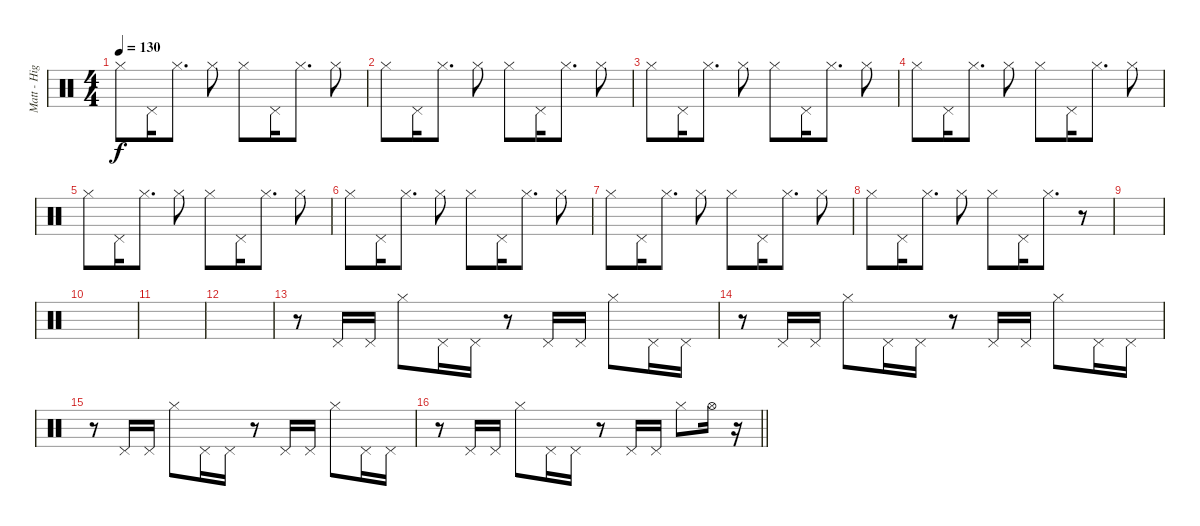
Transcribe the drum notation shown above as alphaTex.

\track ("Matt - High Hat" "Matt - Hig") {instrument percussion}
\staff {score}
\articulation defaults
\ts (4 4)
\tempo 130
\clef neutral
\ks c "Hi-Hat (closed)".8{dy f} "Pedal Hi-Hat (hit)".16 "Hi-Hat (closed)".8{d} "Hi-Hat (closed)".8 "Hi-Hat (closed)".8 "Pedal Hi-Hat (hit)".16 "Hi-Hat (closed)".8{d} "Hi-Hat (closed)".8
|
"Hi-Hat (closed)".8 "Pedal Hi-Hat (hit)".16 "Hi-Hat (closed)".8{d} "Hi-Hat (closed)".8 "Hi-Hat (closed)".8 "Pedal Hi-Hat (hit)".16 "Hi-Hat (closed)".8{d} "Hi-Hat (closed)".8 |
"Hi-Hat (closed)".8 "Pedal Hi-Hat (hit)".16 "Hi-Hat (closed)".8{d} "Hi-Hat (closed)".8 "Hi-Hat (closed)".8 "Pedal Hi-Hat (hit)".16 "Hi-Hat (closed)".8{d} "Hi-Hat (closed)".8 |
"Hi-Hat (closed)".8 "Pedal Hi-Hat (hit)".16 "Hi-Hat (closed)".8{d} "Hi-Hat (closed)".8 "Hi-Hat (closed)".8 "Pedal Hi-Hat (hit)".16 "Hi-Hat (closed)".8{d} "Hi-Hat (closed)".8 |
"Hi-Hat (closed)".8 "Pedal Hi-Hat (hit)".16 "Hi-Hat (closed)".8{d} "Hi-Hat (closed)".8 "Hi-Hat (closed)".8 "Pedal Hi-Hat (hit)".16 "Hi-Hat (closed)".8{d} "Hi-Hat (closed)".8 |
"Hi-Hat (closed)".8 "Pedal Hi-Hat (hit)".16 "Hi-Hat (closed)".8{d} "Hi-Hat (closed)".8 "Hi-Hat (closed)".8 "Pedal Hi-Hat (hit)".16 "Hi-Hat (closed)".8{d} "Hi-Hat (closed)".8 |
"Hi-Hat (closed)".8 "Pedal Hi-Hat (hit)".16 "Hi-Hat (closed)".8{d} "Hi-Hat (closed)".8 "Hi-Hat (closed)".8 "Pedal Hi-Hat (hit)".16 "Hi-Hat (closed)".8{d} "Hi-Hat (closed)".8 |
"Hi-Hat (closed)".8 "Pedal Hi-Hat (hit)".16 "Hi-Hat (closed)".8{d} "Hi-Hat (closed)".8 "Hi-Hat (closed)".8 "Pedal Hi-Hat (hit)".16 "Hi-Hat (closed)".8{d} r.8 |
|
|
|
|
r.8 "Pedal Hi-Hat (hit)".16 "Pedal Hi-Hat (hit)".16 "Hi-Hat (closed)".8 "Pedal Hi-Hat (hit)".16 "Pedal Hi-Hat (hit)".16 r.8 "Pedal Hi-Hat (hit)".16 "Pedal Hi-Hat (hit)".16 "Hi-Hat (closed)".8 "Pedal Hi-Hat (hit)".16 "Pedal Hi-Hat (hit)".16 |
r.8 "Pedal Hi-Hat (hit)".16 "Pedal Hi-Hat (hit)".16 "Hi-Hat (closed)".8 "Pedal Hi-Hat (hit)".16 "Pedal Hi-Hat (hit)".16 r.8 "Pedal Hi-Hat (hit)".16 "Pedal Hi-Hat (hit)".16 "Hi-Hat (closed)".8 "Pedal Hi-Hat (hit)".16 "Pedal Hi-Hat (hit)".16 |
r.8 "Pedal Hi-Hat (hit)".16 "Pedal Hi-Hat (hit)".16 "Hi-Hat (closed)".8 "Pedal Hi-Hat (hit)".16 "Pedal Hi-Hat (hit)".16 r.8 "Pedal Hi-Hat (hit)".16 "Pedal Hi-Hat (hit)".16 "Hi-Hat (closed)".8 "Pedal Hi-Hat (hit)".16 "Pedal Hi-Hat (hit)".16 |
\barLineRight lightlight
r.8 "Pedal Hi-Hat (hit)".16 "Pedal Hi-Hat (hit)".16 "Hi-Hat (closed)".8 "Pedal Hi-Hat (hit)".16 "Pedal Hi-Hat (hit)".16 r.8 "Pedal Hi-Hat (hit)".16 "Pedal Hi-Hat (hit)".16 "Hi-Hat (closed)".8 "Hi-Hat (open)".16 r.16
